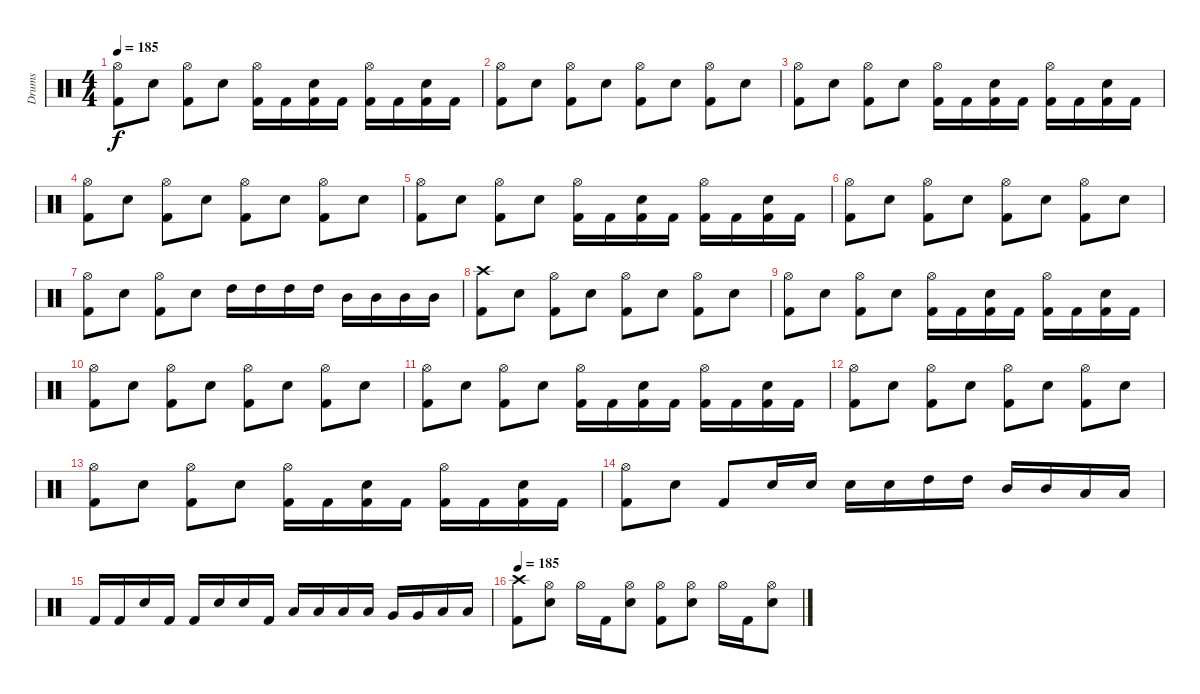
\track ("Drums" "Drums") {instrument percussion}
\staff {score}
\articulation defaults
\ts (4 4)
\tempo 185
\clef neutral
\ks c
("Hi-Hat (open)" "Kick (hit) 2").8{dy f} "Electric Snare (hit)".8 ("Hi-Hat (open)" "Kick (hit) 2").8 "Electric Snare (hit)".8 ("Hi-Hat (open)" "Kick (hit) 2").16 "Kick (hit) 2".16 ("Electric Snare (hit)" "Kick (hit) 2").16 "Kick (hit) 2".16 ("Hi-Hat (open)" "Kick (hit) 2").16 "Kick (hit) 2".16 ("Electric Snare (hit)" "Kick (hit) 2").16 "Kick (hit) 2".16 |
("Hi-Hat (open)" "Kick (hit) 2").8 "Electric Snare (hit)".8 ("Hi-Hat (open)" "Kick (hit) 2").8 "Electric Snare (hit)".8 ("Hi-Hat (open)" "Kick (hit) 2").8 "Electric Snare (hit)".8 ("Hi-Hat (open)" "Kick (hit) 2").8 "Electric Snare (hit)".8 |
("Hi-Hat (open)" "Kick (hit) 2").8 "Electric Snare (hit)".8 ("Hi-Hat (open)" "Kick (hit) 2").8 "Electric Snare (hit)".8 ("Hi-Hat (open)" "Kick (hit) 2").16 "Kick (hit) 2".16 ("Electric Snare (hit)" "Kick (hit) 2").16 "Kick (hit) 2".16 ("Hi-Hat (open)" "Kick (hit) 2").16 "Kick (hit) 2".16 ("Electric Snare (hit)" "Kick (hit) 2").16 "Kick (hit) 2".16 |
("Hi-Hat (open)" "Kick (hit) 2").8 "Electric Snare (hit)".8 ("Hi-Hat (open)" "Kick (hit) 2").8 "Electric Snare (hit)".8 ("Hi-Hat (open)" "Kick (hit) 2").8 "Electric Snare (hit)".8 ("Hi-Hat (open)" "Kick (hit) 2").8 "Electric Snare (hit)".8 |
("Hi-Hat (open)" "Kick (hit) 2").8 "Electric Snare (hit)".8 ("Hi-Hat (open)" "Kick (hit) 2").8 "Electric Snare (hit)".8 ("Hi-Hat (open)" "Kick (hit) 2").16 "Kick (hit) 2".16 ("Electric Snare (hit)" "Kick (hit) 2").16 "Kick (hit) 2".16 ("Hi-Hat (open)" "Kick (hit) 2").16 "Kick (hit) 2".16 ("Electric Snare (hit)" "Kick (hit) 2").16 "Kick (hit) 2".16 |
("Hi-Hat (open)" "Kick (hit) 2").8 "Electric Snare (hit)".8 ("Hi-Hat (open)" "Kick (hit) 2").8 "Electric Snare (hit)".8 ("Hi-Hat (open)" "Kick (hit) 2").8 "Electric Snare (hit)".8 ("Hi-Hat (open)" "Kick (hit) 2").8 "Electric Snare (hit)".8 |
("Hi-Hat (open)" "Kick (hit) 2").8 "Electric Snare (hit)".8 ("Hi-Hat (open)" "Kick (hit) 2").8 "Electric Snare (hit)".8 "High Tom (hit)".16 "High Tom (hit)".16 "High Tom (hit)".16 "High Tom (hit)".16 "Mid Tom (hit)".16 "Mid Tom (hit)".16 "Mid Tom (hit)".16 "Mid Tom (hit)".16 |
("Crash high (hit)" "Kick (hit) 2").8 "Electric Snare (hit)".8 ("Hi-Hat (open)" "Kick (hit) 2").8 "Electric Snare (hit)".8 ("Hi-Hat (open)" "Kick (hit) 2").8 "Electric Snare (hit)".8 ("Hi-Hat (open)" "Kick (hit) 2").8 "Electric Snare (hit)".8 |
("Hi-Hat (open)" "Kick (hit) 2").8 "Electric Snare (hit)".8 ("Hi-Hat (open)" "Kick (hit) 2").8 "Electric Snare (hit)".8 ("Hi-Hat (open)" "Kick (hit) 2").16 "Kick (hit) 2".16 ("Electric Snare (hit)" "Kick (hit) 2").16 "Kick (hit) 2".16 ("Hi-Hat (open)" "Kick (hit) 2").16 "Kick (hit) 2".16 ("Electric Snare (hit)" "Kick (hit) 2").16 "Kick (hit) 2".16 |
("Hi-Hat (open)" "Kick (hit) 2").8 "Electric Snare (hit)".8 ("Hi-Hat (open)" "Kick (hit) 2").8 "Electric Snare (hit)".8 ("Hi-Hat (open)" "Kick (hit) 2").8 "Electric Snare (hit)".8 ("Hi-Hat (open)" "Kick (hit) 2").8 "Electric Snare (hit)".8 |
("Hi-Hat (open)" "Kick (hit) 2").8 "Electric Snare (hit)".8 ("Hi-Hat (open)" "Kick (hit) 2").8 "Electric Snare (hit)".8 ("Hi-Hat (open)" "Kick (hit) 2").16 "Kick (hit) 2".16 ("Electric Snare (hit)" "Kick (hit) 2").16 "Kick (hit) 2".16 ("Hi-Hat (open)" "Kick (hit) 2").16 "Kick (hit) 2".16 ("Electric Snare (hit)" "Kick (hit) 2").16 "Kick (hit) 2".16 |
("Hi-Hat (open)" "Kick (hit) 2").8 "Electric Snare (hit)".8 ("Hi-Hat (open)" "Kick (hit) 2").8 "Electric Snare (hit)".8 ("Hi-Hat (open)" "Kick (hit) 2").8 "Electric Snare (hit)".8 ("Hi-Hat (open)" "Kick (hit) 2").8 "Electric Snare (hit)".8 |
("Hi-Hat (open)" "Kick (hit) 2").8 "Electric Snare (hit)".8 ("Hi-Hat (open)" "Kick (hit) 2").8 "Electric Snare (hit)".8 ("Hi-Hat (open)" "Kick (hit) 2").16 "Kick (hit) 2".16 ("Electric Snare (hit)" "Kick (hit) 2").16 "Kick (hit) 2".16 ("Hi-Hat (open)" "Kick (hit) 2").16 "Kick (hit) 2".16 ("Electric Snare (hit)" "Kick (hit) 2").16 "Kick (hit) 2".16 |
("Hi-Hat (open)" "Kick (hit) 2").8 "Electric Snare (hit)".8 "Kick (hit) 2".8 "Electric Snare (hit)".16 "Electric Snare (hit)".16 "Electric Snare (hit)".16 "Electric Snare (hit)".16 "High Tom (hit)".16 "High Tom (hit)".16 "Mid Tom (hit)".16 "Mid Tom (hit)".16 "Low Tom (hit)".16 "Low Tom (hit)".16 |
"Kick (hit) 2".16 "Kick (hit) 2".16 "Electric Snare (hit)".16 "Kick (hit) 2".16 "Kick (hit) 2".16 "Electric Snare (hit)".16 "Electric Snare (hit)".16 "Kick (hit) 2".16 "Low Tom (hit)".16 "Low Tom (hit)".16 "Low Tom (hit)".16 "Low Tom (hit)".16 "Very Low Tom (hit)".16 "Very Low Tom (hit)".16 "Low Floor Tom (hit)".16 "Low Floor Tom (hit)".16 |
\tempo 185
("Crash high (hit)" "Kick (hit) 2").8 ("Hi-Hat (open)" "Electric Snare (hit)").8 "Hi-Hat (open)".16 "Kick (hit) 2".16 ("Hi-Hat (open)" "Electric Snare (hit)").8 ("Hi-Hat (open)" "Kick (hit) 2").8 ("Hi-Hat (open)" "Electric Snare (hit)").8 "Hi-Hat (open)".16 "Kick (hit) 2".16 ("Hi-Hat (open)" "Electric Snare (hit)").8
